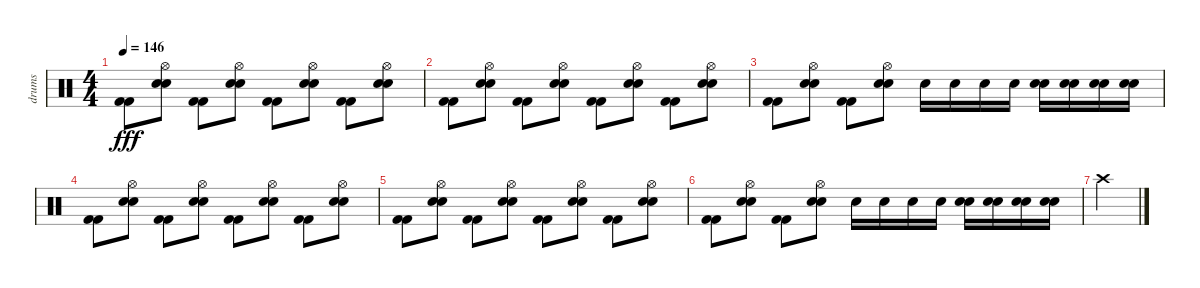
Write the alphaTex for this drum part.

\track ("drums" "drums") {instrument percussion}
\staff {score}
\articulation defaults
\ts (4 4)
\tempo 146
\clef neutral
\ks c
("Kick (hit) 2" "Kick (hit) 2").8{dy fff} ("Hi-Hat (open)" "Electric Snare (hit)" "Electric Snare (hit)").8 ("Kick (hit) 2" "Kick (hit) 2").8 ("Hi-Hat (open)" "Electric Snare (hit)" "Electric Snare (hit)").8 ("Kick (hit) 2" "Kick (hit) 2").8 ("Hi-Hat (open)" "Electric Snare (hit)" "Electric Snare (hit)").8 ("Kick (hit) 2" "Kick (hit) 2").8 ("Hi-Hat (open)" "Electric Snare (hit)" "Electric Snare (hit)").8 |
("Kick (hit) 2" "Kick (hit) 2").8 ("Hi-Hat (open)" "Electric Snare (hit)" "Electric Snare (hit)").8 ("Kick (hit) 2" "Kick (hit) 2").8 ("Hi-Hat (open)" "Electric Snare (hit)" "Electric Snare (hit)").8 ("Kick (hit) 2" "Kick (hit) 2").8 ("Hi-Hat (open)" "Electric Snare (hit)" "Electric Snare (hit)").8 ("Kick (hit) 2" "Kick (hit) 2").8 ("Hi-Hat (open)" "Electric Snare (hit)" "Electric Snare (hit)").8 |
("Kick (hit) 2" "Kick (hit) 2").8 ("Hi-Hat (open)" "Electric Snare (hit)" "Electric Snare (hit)").8 ("Kick (hit) 2" "Kick (hit) 2").8 ("Hi-Hat (open)" "Electric Snare (hit)" "Electric Snare (hit)").8 "Electric Snare (hit)".16 "Electric Snare (hit)".16 "Electric Snare (hit)".16 "Electric Snare (hit)".16 ("Electric Snare (hit)" "Electric Snare (hit)").16 ("Electric Snare (hit)" "Electric Snare (hit)").16 ("Electric Snare (hit)" "Electric Snare (hit)").16 ("Electric Snare (hit)" "Electric Snare (hit)").16 |
("Kick (hit) 2" "Kick (hit) 2").8 ("Hi-Hat (open)" "Electric Snare (hit)" "Electric Snare (hit)").8 ("Kick (hit) 2" "Kick (hit) 2").8 ("Hi-Hat (open)" "Electric Snare (hit)" "Electric Snare (hit)").8 ("Kick (hit) 2" "Kick (hit) 2").8 ("Hi-Hat (open)" "Electric Snare (hit)" "Electric Snare (hit)").8 ("Kick (hit) 2" "Kick (hit) 2").8 ("Hi-Hat (open)" "Electric Snare (hit)" "Electric Snare (hit)").8 |
("Kick (hit) 2" "Kick (hit) 2").8 ("Hi-Hat (open)" "Electric Snare (hit)" "Electric Snare (hit)").8 ("Kick (hit) 2" "Kick (hit) 2").8 ("Hi-Hat (open)" "Electric Snare (hit)" "Electric Snare (hit)").8 ("Kick (hit) 2" "Kick (hit) 2").8 ("Hi-Hat (open)" "Electric Snare (hit)" "Electric Snare (hit)").8 ("Kick (hit) 2" "Kick (hit) 2").8 ("Hi-Hat (open)" "Electric Snare (hit)" "Electric Snare (hit)").8 |
("Kick (hit) 2" "Kick (hit) 2").8 ("Hi-Hat (open)" "Electric Snare (hit)" "Electric Snare (hit)").8 ("Kick (hit) 2" "Kick (hit) 2").8 ("Hi-Hat (open)" "Electric Snare (hit)" "Electric Snare (hit)").8 "Electric Snare (hit)".16 "Electric Snare (hit)".16 "Electric Snare (hit)".16 "Electric Snare (hit)".16 ("Electric Snare (hit)" "Electric Snare (hit)").16 ("Electric Snare (hit)" "Electric Snare (hit)").16 ("Electric Snare (hit)" "Electric Snare (hit)").16 ("Electric Snare (hit)" "Electric Snare (hit)").16 |
"Crash high (hit)".4
